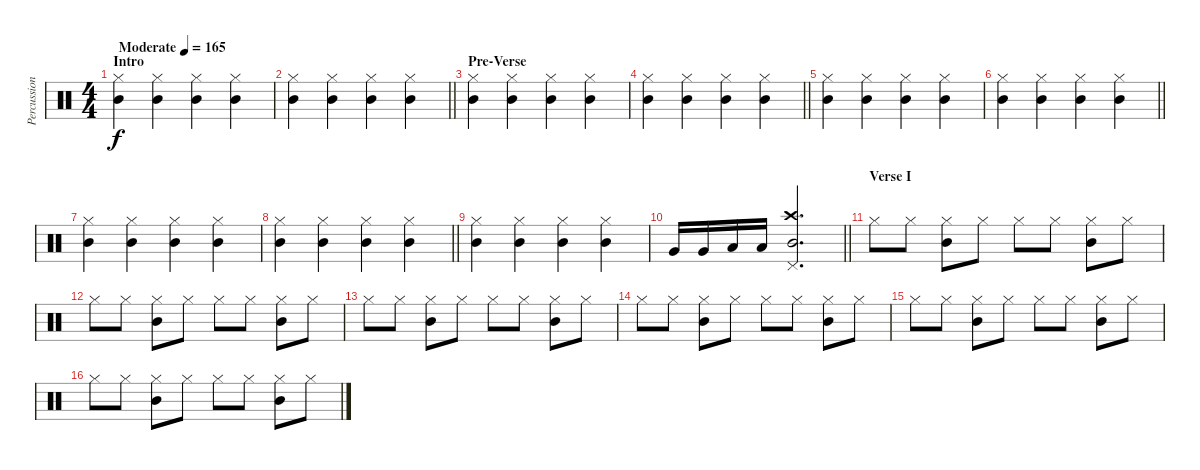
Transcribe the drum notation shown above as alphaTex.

\track ("Percussion Improvisation" "Percussion") {instrument percussion}
\staff {score}
\articulation defaults
\ts (4 4)
\section ("" "Intro")
\tempo (165 "Moderate")
\clef neutral
\ks c
("Hi-Hat (closed)" "Mid Tom (hit)").4{dy f} ("Mid Tom (hit)" "Hi-Hat (closed)").4 ("Hi-Hat (closed)" "Mid Tom (hit)").4 ("Hi-Hat (closed)" "Mid Tom (hit)").4 |
\barLineRight lightlight
("Hi-Hat (closed)" "Mid Tom (hit)").4 ("Mid Tom (hit)" "Hi-Hat (closed)").4 ("Hi-Hat (closed)" "Mid Tom (hit)").4 ("Hi-Hat (closed)" "Mid Tom (hit)").4 |
\section ("" "Pre-Verse")
("Hi-Hat (closed)" "Mid Tom (hit)").4 ("Mid Tom (hit)" "Hi-Hat (closed)").4 ("Hi-Hat (closed)" "Mid Tom (hit)").4 ("Hi-Hat (closed)" "Mid Tom (hit)").4 |
\barLineRight lightlight
("Hi-Hat (closed)" "Mid Tom (hit)").4 ("Mid Tom (hit)" "Hi-Hat (closed)").4 ("Hi-Hat (closed)" "Mid Tom (hit)").4 ("Hi-Hat (closed)" "Mid Tom (hit)").4 |
("Hi-Hat (closed)" "Mid Tom (hit)").4 ("Mid Tom (hit)" "Hi-Hat (closed)").4 ("Hi-Hat (closed)" "Mid Tom (hit)").4 ("Hi-Hat (closed)" "Mid Tom (hit)").4 |
\barLineRight lightlight
("Hi-Hat (closed)" "Mid Tom (hit)").4 ("Mid Tom (hit)" "Hi-Hat (closed)").4 ("Hi-Hat (closed)" "Mid Tom (hit)").4 ("Hi-Hat (closed)" "Mid Tom (hit)").4 |
("Hi-Hat (closed)" "Mid Tom (hit)").4 ("Mid Tom (hit)" "Hi-Hat (closed)").4 ("Hi-Hat (closed)" "Mid Tom (hit)").4 ("Hi-Hat (closed)" "Mid Tom (hit)").4 |
\barLineRight lightlight
("Hi-Hat (closed)" "Mid Tom (hit)").4 ("Mid Tom (hit)" "Hi-Hat (closed)").4 ("Hi-Hat (closed)" "Mid Tom (hit)").4 ("Hi-Hat (closed)" "Mid Tom (hit)").4 |
("Hi-Hat (closed)" "Mid Tom (hit)").4 ("Mid Tom (hit)" "Hi-Hat (closed)").4 ("Hi-Hat (closed)" "Mid Tom (hit)").4 ("Hi-Hat (closed)" "Mid Tom (hit)").4 |
\barLineRight lightlight "Very Low Tom (hit)".16 "Very Low Tom (hit)".16 "Low Tom (hit)".16 "Low Tom (hit)".16
("Mid Tom (hit)" "Crash high (hit)" "Pedal Hi-Hat (hit)").2{d} |
\section ("" "Verse I")
"Hi-Hat (closed)".8 "Hi-Hat (closed)".8 ("Hi-Hat (closed)" "Mid Tom (hit)").8 "Hi-Hat (closed)".8 "Hi-Hat (closed)".8 "Hi-Hat (closed)".8 ("Hi-Hat (closed)" "Mid Tom (hit)").8 "Hi-Hat (closed)".8 |
"Hi-Hat (closed)".8 "Hi-Hat (closed)".8 ("Hi-Hat (closed)" "Mid Tom (hit)").8 "Hi-Hat (closed)".8 "Hi-Hat (closed)".8 "Hi-Hat (closed)".8 ("Hi-Hat (closed)" "Mid Tom (hit)").8 "Hi-Hat (closed)".8 |
"Hi-Hat (closed)".8 "Hi-Hat (closed)".8 ("Hi-Hat (closed)" "Mid Tom (hit)").8 "Hi-Hat (closed)".8 "Hi-Hat (closed)".8 "Hi-Hat (closed)".8 ("Hi-Hat (closed)" "Mid Tom (hit)").8 "Hi-Hat (closed)".8 |
"Hi-Hat (closed)".8 "Hi-Hat (closed)".8 ("Hi-Hat (closed)" "Mid Tom (hit)").8 "Hi-Hat (closed)".8 "Hi-Hat (closed)".8 "Hi-Hat (closed)".8 ("Hi-Hat (closed)" "Mid Tom (hit)").8 "Hi-Hat (closed)".8 |
"Hi-Hat (closed)".8 "Hi-Hat (closed)".8 ("Hi-Hat (closed)" "Mid Tom (hit)").8 "Hi-Hat (closed)".8 "Hi-Hat (closed)".8 "Hi-Hat (closed)".8 ("Hi-Hat (closed)" "Mid Tom (hit)").8 "Hi-Hat (closed)".8 |
"Hi-Hat (closed)".8 "Hi-Hat (closed)".8 ("Hi-Hat (closed)" "Mid Tom (hit)").8 "Hi-Hat (closed)".8 "Hi-Hat (closed)".8 "Hi-Hat (closed)".8 ("Hi-Hat (closed)" "Mid Tom (hit)").8 "Hi-Hat (closed)".8
